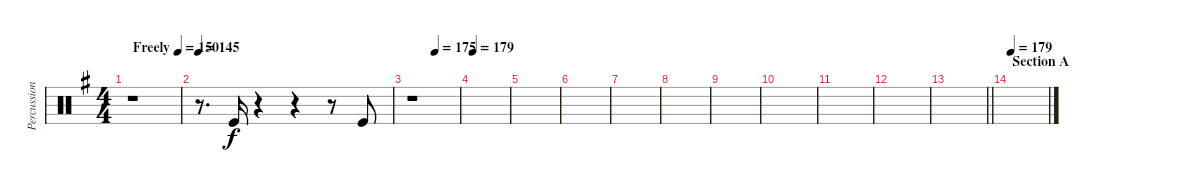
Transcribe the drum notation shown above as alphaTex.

\track ("Percussion 02" "Percussion") {instrument percussion}
\staff {score}
\articulation defaults
\ts (4 4)
\tempo (150 "Freely")
\clef neutral
\ks g
r.1{dy f} |
\tempo 145
r.8{d} "Kick (hit)".16 r.4 r.4 r.8 "Kick (hit)".8 |
\tempo (175 0.5)
r.1 |
\tempo 179
|
|
|
|
|
|
|
|
|
\barLineRight lightlight
|
\section ("" "Section A")
\tempo 179
